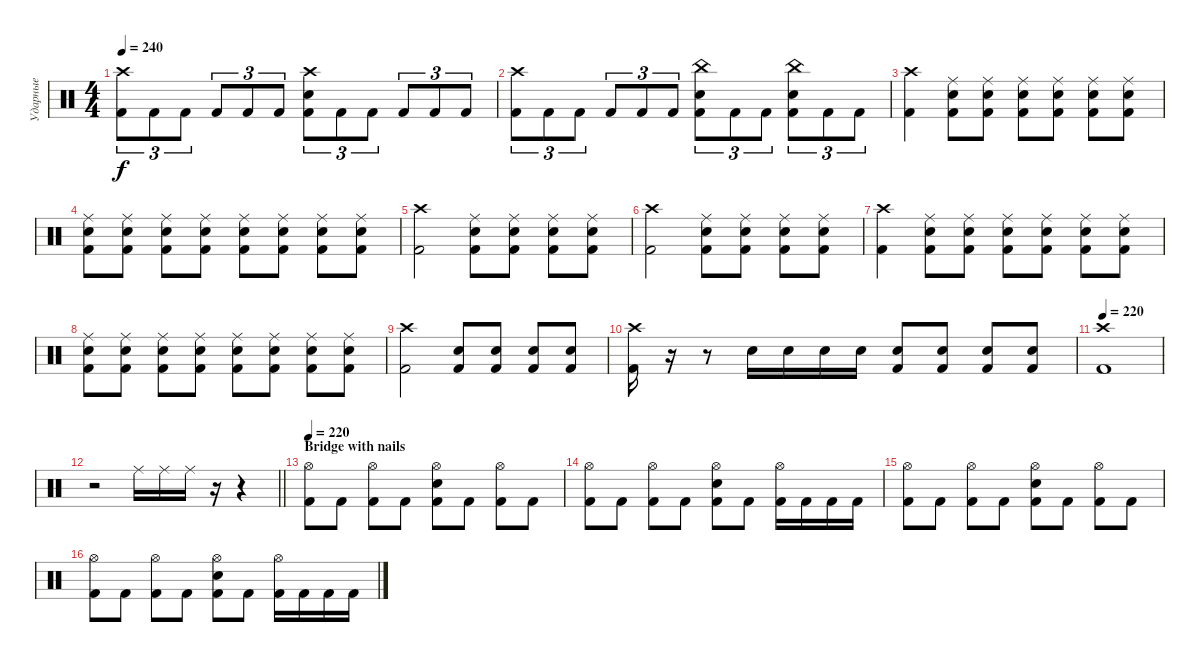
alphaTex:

\track ("Ударные" "Ударные") {instrument percussion}
\staff {score}
\articulation defaults
\ts (4 4)
\tempo 240
\clef neutral
\ks c
("Crash high (hit)" "Kick (hit) 2").8{tu (3 2) dy f} "Kick (hit) 2".8{tu (3 2)} "Kick (hit) 2".8{tu (3 2)} "Kick (hit) 2".8{tu (3 2)} "Kick (hit) 2".8{tu (3 2)} "Kick (hit) 2".8{tu (3 2)} ("Crash high (hit)" "Electric Snare (hit)" "Kick (hit) 2").8{tu (3 2)} "Kick (hit) 2".8{tu (3 2)} "Kick (hit) 2".8{tu (3 2)} "Kick (hit) 2".8{tu (3 2)} "Kick (hit) 2".8{tu (3 2)} "Kick (hit) 2".8{tu (3 2)} |
("Crash high (hit)" "Kick (hit) 2").8{tu (3 2)} "Kick (hit) 2".8{tu (3 2)} "Kick (hit) 2".8{tu (3 2)} "Kick (hit) 2".8{tu (3 2)} "Kick (hit) 2".8{tu (3 2)} "Kick (hit) 2".8{tu (3 2)} ("China (hit)" "Electric Snare (hit)" "Kick (hit) 2").8{tu (3 2)} "Kick (hit) 2".8{tu (3 2)} "Kick (hit) 2".8{tu (3 2)} ("China (hit)" "Electric Snare (hit)" "Kick (hit) 2").8{tu (3 2)} "Kick (hit) 2".8{tu (3 2)} "Kick (hit) 2".8{tu (3 2)} |
("Crash high (hit)" "Kick (hit) 2").4 ("Ride (middle)" "Electric Snare (hit)" "Kick (hit) 2").8 ("Ride (middle)" "Electric Snare (hit)" "Kick (hit) 2").8 ("Ride (middle)" "Electric Snare (hit)" "Kick (hit) 2").8 ("Ride (middle)" "Electric Snare (hit)" "Kick (hit) 2").8 ("Ride (middle)" "Electric Snare (hit)" "Kick (hit) 2").8 ("Ride (middle)" "Electric Snare (hit)" "Kick (hit) 2").8 |
("Ride (middle)" "Electric Snare (hit)" "Kick (hit) 2").8 ("Ride (middle)" "Electric Snare (hit)" "Kick (hit) 2").8 ("Ride (middle)" "Electric Snare (hit)" "Kick (hit) 2").8 ("Ride (middle)" "Electric Snare (hit)" "Kick (hit) 2").8 ("Ride (middle)" "Electric Snare (hit)" "Kick (hit) 2").8 ("Ride (middle)" "Electric Snare (hit)" "Kick (hit) 2").8 ("Ride (middle)" "Electric Snare (hit)" "Kick (hit) 2").8 ("Ride (middle)" "Electric Snare (hit)" "Kick (hit) 2").8 |
("Crash high (hit)" "Kick (hit) 2").2 ("Ride (middle)" "Electric Snare (hit)" "Kick (hit) 2").8 ("Ride (middle)" "Electric Snare (hit)" "Kick (hit) 2").8 ("Ride (middle)" "Electric Snare (hit)" "Kick (hit) 2").8 ("Ride (middle)" "Electric Snare (hit)" "Kick (hit) 2").8 |
("Crash high (hit)" "Kick (hit) 2").2 ("Ride (middle)" "Electric Snare (hit)" "Kick (hit) 2").8 ("Ride (middle)" "Electric Snare (hit)" "Kick (hit) 2").8 ("Ride (middle)" "Electric Snare (hit)" "Kick (hit) 2").8 ("Ride (middle)" "Electric Snare (hit)" "Kick (hit) 2").8 |
("Crash high (hit)" "Kick (hit) 2").4 ("Ride (middle)" "Electric Snare (hit)" "Kick (hit) 2").8 ("Ride (middle)" "Electric Snare (hit)" "Kick (hit) 2").8 ("Ride (middle)" "Electric Snare (hit)" "Kick (hit) 2").8 ("Ride (middle)" "Electric Snare (hit)" "Kick (hit) 2").8 ("Ride (middle)" "Electric Snare (hit)" "Kick (hit) 2").8 ("Ride (middle)" "Electric Snare (hit)" "Kick (hit) 2").8 |
("Ride (middle)" "Electric Snare (hit)" "Kick (hit) 2").8 ("Ride (middle)" "Electric Snare (hit)" "Kick (hit) 2").8 ("Ride (middle)" "Electric Snare (hit)" "Kick (hit) 2").8 ("Ride (middle)" "Electric Snare (hit)" "Kick (hit) 2").8 ("Ride (middle)" "Electric Snare (hit)" "Kick (hit) 2").8 ("Ride (middle)" "Electric Snare (hit)" "Kick (hit) 2").8 ("Ride (middle)" "Electric Snare (hit)" "Kick (hit) 2").8 ("Ride (middle)" "Electric Snare (hit)" "Kick (hit) 2").8 |
("Crash high (hit)" "Kick (hit) 2").2 ("Electric Snare (hit)" "Kick (hit) 2").8 ("Electric Snare (hit)" "Kick (hit) 2").8 ("Electric Snare (hit)" "Kick (hit) 2").8 ("Electric Snare (hit)" "Kick (hit) 2").8 |
("Crash high (hit)" "Kick (hit) 2").16 r.16 r.8 "Electric Snare (hit)".16 "Electric Snare (hit)".16 "Electric Snare (hit)".16 "Electric Snare (hit)".16 ("Electric Snare (hit)" "Kick (hit) 2").8 ("Electric Snare (hit)" "Kick (hit) 2").8 ("Electric Snare (hit)" "Kick (hit) 2").8 ("Electric Snare (hit)" "Kick (hit) 2").8 |
\tempo 220
("Crash high (hit)" "Kick (hit) 2").1 |
\barLineRight lightlight
r.2 "Ride (middle)".16 "Ride (middle)".16 "Ride (middle)".16 r.16 r.4 |
\section ("" "Bridge with nails")
\tempo 220
("Hi-Hat (open)" "Kick (hit) 2").8 "Kick (hit) 2".8 ("Hi-Hat (open)" "Kick (hit) 2").8 "Kick (hit) 2".8 ("Hi-Hat (open)" "Electric Snare (hit)" "Kick (hit) 2").8 "Kick (hit) 2".8 ("Hi-Hat (open)" "Kick (hit) 2").8 "Kick (hit) 2".8 |
("Hi-Hat (open)" "Kick (hit) 2").8 "Kick (hit) 2".8 ("Hi-Hat (open)" "Kick (hit) 2").8 "Kick (hit) 2".8 ("Hi-Hat (open)" "Electric Snare (hit)" "Kick (hit) 2").8 "Kick (hit) 2".8 ("Hi-Hat (open)" "Kick (hit) 2").16 "Kick (hit) 2".16 "Kick (hit) 2".16 "Kick (hit) 2".16 |
("Hi-Hat (open)" "Kick (hit) 2").8 "Kick (hit) 2".8 ("Hi-Hat (open)" "Kick (hit) 2").8 "Kick (hit) 2".8 ("Hi-Hat (open)" "Electric Snare (hit)" "Kick (hit) 2").8 "Kick (hit) 2".8 ("Hi-Hat (open)" "Kick (hit) 2").8 "Kick (hit) 2".8 |
("Hi-Hat (open)" "Kick (hit) 2").8 "Kick (hit) 2".8 ("Hi-Hat (open)" "Kick (hit) 2").8 "Kick (hit) 2".8 ("Hi-Hat (open)" "Electric Snare (hit)" "Kick (hit) 2").8 "Kick (hit) 2".8 ("Hi-Hat (open)" "Kick (hit) 2").16 "Kick (hit) 2".16 "Kick (hit) 2".16 "Kick (hit) 2".16
